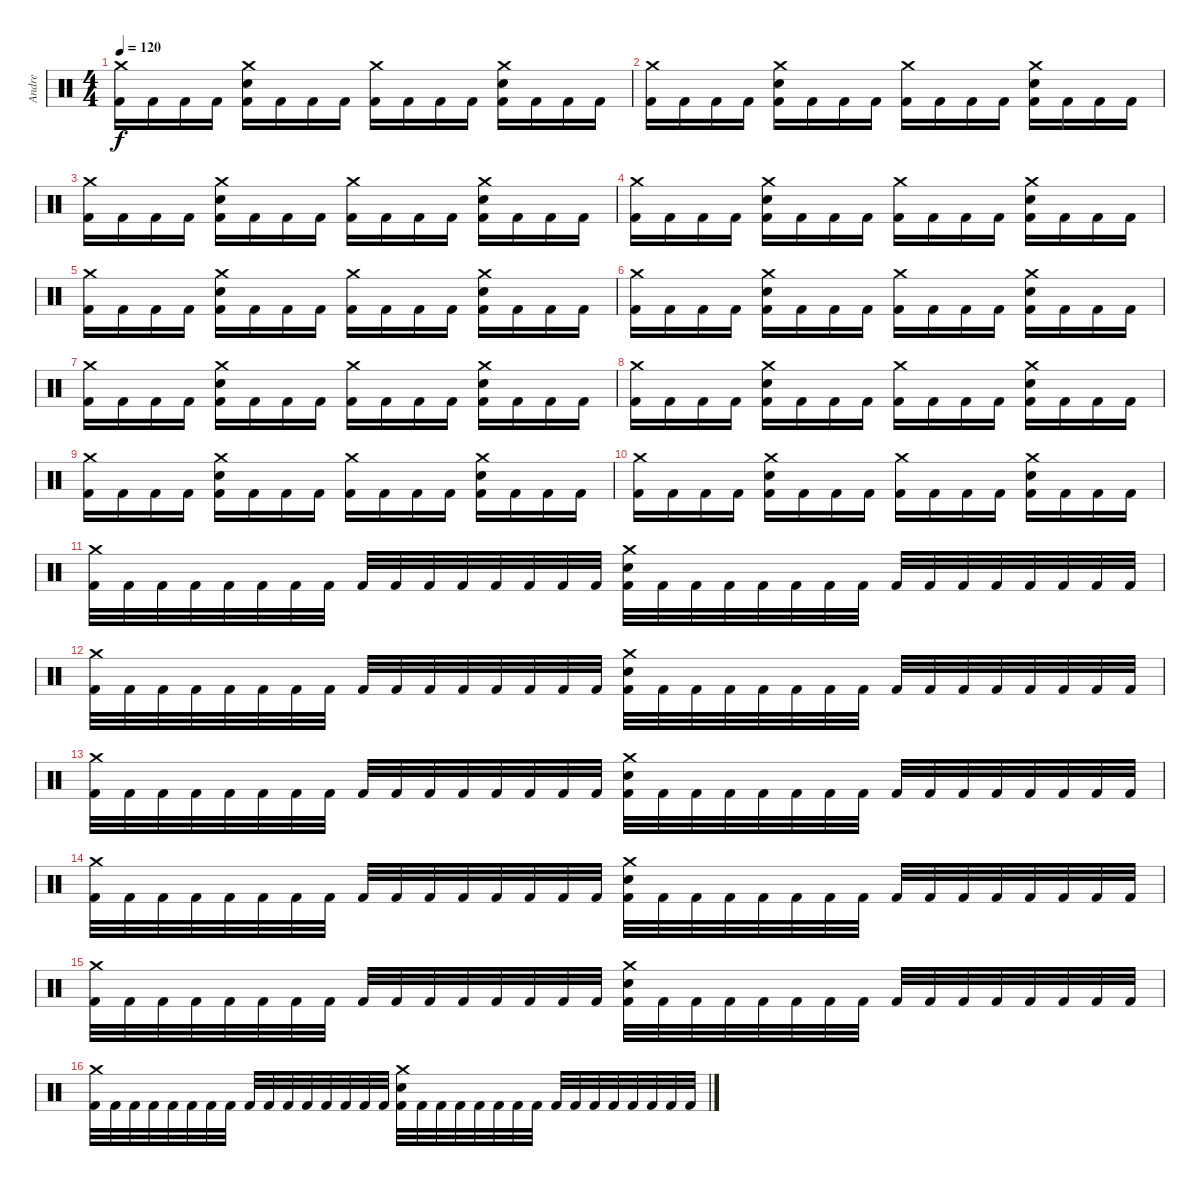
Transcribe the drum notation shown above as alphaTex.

\track ("Andre" "Andre") {instrument percussion}
\staff {score}
\articulation defaults
\ts (4 4)
\tempo 120
\clef neutral
\ks c
("Crash medium (hit)" "Kick (hit) 2").16{dy f} "Kick (hit) 2".16 "Kick (hit) 2".16 "Kick (hit) 2".16 ("Crash medium (hit)" "Snare (hit) 2" "Kick (hit) 2").16 "Kick (hit) 2".16 "Kick (hit) 2".16 "Kick (hit) 2".16 ("Crash medium (hit)" "Kick (hit) 2").16 "Kick (hit) 2".16 "Kick (hit) 2".16 "Kick (hit) 2".16 ("Crash medium (hit)" "Snare (hit) 2" "Kick (hit) 2").16 "Kick (hit) 2".16 "Kick (hit) 2".16 "Kick (hit) 2".16 |
("Crash medium (hit)" "Kick (hit) 2").16 "Kick (hit) 2".16 "Kick (hit) 2".16 "Kick (hit) 2".16 ("Crash medium (hit)" "Snare (hit) 2" "Kick (hit) 2").16 "Kick (hit) 2".16 "Kick (hit) 2".16 "Kick (hit) 2".16 ("Crash medium (hit)" "Kick (hit) 2").16 "Kick (hit) 2".16 "Kick (hit) 2".16 "Kick (hit) 2".16 ("Crash medium (hit)" "Snare (hit) 2" "Kick (hit) 2").16 "Kick (hit) 2".16 "Kick (hit) 2".16 "Kick (hit) 2".16 |
("Crash medium (hit)" "Kick (hit) 2").16 "Kick (hit) 2".16 "Kick (hit) 2".16 "Kick (hit) 2".16 ("Crash medium (hit)" "Snare (hit) 2" "Kick (hit) 2").16 "Kick (hit) 2".16 "Kick (hit) 2".16 "Kick (hit) 2".16 ("Crash medium (hit)" "Kick (hit) 2").16 "Kick (hit) 2".16 "Kick (hit) 2".16 "Kick (hit) 2".16 ("Crash medium (hit)" "Snare (hit) 2" "Kick (hit) 2").16 "Kick (hit) 2".16 "Kick (hit) 2".16 "Kick (hit) 2".16 |
("Crash medium (hit)" "Kick (hit) 2").16 "Kick (hit) 2".16 "Kick (hit) 2".16 "Kick (hit) 2".16 ("Crash medium (hit)" "Snare (hit) 2" "Kick (hit) 2").16 "Kick (hit) 2".16 "Kick (hit) 2".16 "Kick (hit) 2".16 ("Crash medium (hit)" "Kick (hit) 2").16 "Kick (hit) 2".16 "Kick (hit) 2".16 "Kick (hit) 2".16 ("Crash medium (hit)" "Snare (hit) 2" "Kick (hit) 2").16 "Kick (hit) 2".16 "Kick (hit) 2".16 "Kick (hit) 2".16 |
("Crash medium (hit)" "Kick (hit) 2").16 "Kick (hit) 2".16 "Kick (hit) 2".16 "Kick (hit) 2".16 ("Crash medium (hit)" "Snare (hit) 2" "Kick (hit) 2").16 "Kick (hit) 2".16 "Kick (hit) 2".16 "Kick (hit) 2".16 ("Crash medium (hit)" "Kick (hit) 2").16 "Kick (hit) 2".16 "Kick (hit) 2".16 "Kick (hit) 2".16 ("Crash medium (hit)" "Snare (hit) 2" "Kick (hit) 2").16 "Kick (hit) 2".16 "Kick (hit) 2".16 "Kick (hit) 2".16 |
("Crash medium (hit)" "Kick (hit) 2").16 "Kick (hit) 2".16 "Kick (hit) 2".16 "Kick (hit) 2".16 ("Crash medium (hit)" "Snare (hit) 2" "Kick (hit) 2").16 "Kick (hit) 2".16 "Kick (hit) 2".16 "Kick (hit) 2".16 ("Crash medium (hit)" "Kick (hit) 2").16 "Kick (hit) 2".16 "Kick (hit) 2".16 "Kick (hit) 2".16 ("Crash medium (hit)" "Snare (hit) 2" "Kick (hit) 2").16 "Kick (hit) 2".16 "Kick (hit) 2".16 "Kick (hit) 2".16 |
("Crash medium (hit)" "Kick (hit) 2").16 "Kick (hit) 2".16 "Kick (hit) 2".16 "Kick (hit) 2".16 ("Crash medium (hit)" "Snare (hit) 2" "Kick (hit) 2").16 "Kick (hit) 2".16 "Kick (hit) 2".16 "Kick (hit) 2".16 ("Crash medium (hit)" "Kick (hit) 2").16 "Kick (hit) 2".16 "Kick (hit) 2".16 "Kick (hit) 2".16 ("Crash medium (hit)" "Snare (hit) 2" "Kick (hit) 2").16 "Kick (hit) 2".16 "Kick (hit) 2".16 "Kick (hit) 2".16 |
("Crash medium (hit)" "Kick (hit) 2").16 "Kick (hit) 2".16 "Kick (hit) 2".16 "Kick (hit) 2".16 ("Crash medium (hit)" "Snare (hit) 2" "Kick (hit) 2").16 "Kick (hit) 2".16 "Kick (hit) 2".16 "Kick (hit) 2".16 ("Crash medium (hit)" "Kick (hit) 2").16 "Kick (hit) 2".16 "Kick (hit) 2".16 "Kick (hit) 2".16 ("Crash medium (hit)" "Snare (hit) 2" "Kick (hit) 2").16 "Kick (hit) 2".16 "Kick (hit) 2".16 "Kick (hit) 2".16 |
("Crash medium (hit)" "Kick (hit) 2").16 "Kick (hit) 2".16 "Kick (hit) 2".16 "Kick (hit) 2".16 ("Crash medium (hit)" "Snare (hit) 2" "Kick (hit) 2").16 "Kick (hit) 2".16 "Kick (hit) 2".16 "Kick (hit) 2".16 ("Crash medium (hit)" "Kick (hit) 2").16 "Kick (hit) 2".16 "Kick (hit) 2".16 "Kick (hit) 2".16 ("Crash medium (hit)" "Snare (hit) 2" "Kick (hit) 2").16 "Kick (hit) 2".16 "Kick (hit) 2".16 "Kick (hit) 2".16 |
("Crash medium (hit)" "Kick (hit) 2").16 "Kick (hit) 2".16 "Kick (hit) 2".16 "Kick (hit) 2".16 ("Crash medium (hit)" "Snare (hit) 2" "Kick (hit) 2").16 "Kick (hit) 2".16 "Kick (hit) 2".16 "Kick (hit) 2".16 ("Crash medium (hit)" "Kick (hit) 2").16 "Kick (hit) 2".16 "Kick (hit) 2".16 "Kick (hit) 2".16 ("Crash medium (hit)" "Snare (hit) 2" "Kick (hit) 2").16 "Kick (hit) 2".16 "Kick (hit) 2".16 "Kick (hit) 2".16 |
("Crash medium (hit)" "Kick (hit) 2").32 "Kick (hit) 2".32 "Kick (hit) 2".32 "Kick (hit) 2".32 "Kick (hit) 2".32 "Kick (hit) 2".32 "Kick (hit) 2".32 "Kick (hit) 2".32 "Kick (hit) 2".32 "Kick (hit) 2".32 "Kick (hit) 2".32 "Kick (hit) 2".32 "Kick (hit) 2".32 "Kick (hit) 2".32 "Kick (hit) 2".32 "Kick (hit) 2".32 ("Crash medium (hit)" "Snare (hit) 2" "Kick (hit) 2").32 "Kick (hit) 2".32 "Kick (hit) 2".32 "Kick (hit) 2".32 "Kick (hit) 2".32 "Kick (hit) 2".32 "Kick (hit) 2".32 "Kick (hit) 2".32 "Kick (hit) 2".32 "Kick (hit) 2".32 "Kick (hit) 2".32 "Kick (hit) 2".32 "Kick (hit) 2".32 "Kick (hit) 2".32 "Kick (hit) 2".32 "Kick (hit) 2".32 |
("Crash medium (hit)" "Kick (hit) 2").32 "Kick (hit) 2".32 "Kick (hit) 2".32 "Kick (hit) 2".32 "Kick (hit) 2".32 "Kick (hit) 2".32 "Kick (hit) 2".32 "Kick (hit) 2".32 "Kick (hit) 2".32 "Kick (hit) 2".32 "Kick (hit) 2".32 "Kick (hit) 2".32 "Kick (hit) 2".32 "Kick (hit) 2".32 "Kick (hit) 2".32 "Kick (hit) 2".32 ("Crash medium (hit)" "Snare (hit) 2" "Kick (hit) 2").32 "Kick (hit) 2".32 "Kick (hit) 2".32 "Kick (hit) 2".32 "Kick (hit) 2".32 "Kick (hit) 2".32 "Kick (hit) 2".32 "Kick (hit) 2".32 "Kick (hit) 2".32 "Kick (hit) 2".32 "Kick (hit) 2".32 "Kick (hit) 2".32 "Kick (hit) 2".32 "Kick (hit) 2".32 "Kick (hit) 2".32 "Kick (hit) 2".32 |
("Crash medium (hit)" "Kick (hit) 2").32 "Kick (hit) 2".32 "Kick (hit) 2".32 "Kick (hit) 2".32 "Kick (hit) 2".32 "Kick (hit) 2".32 "Kick (hit) 2".32 "Kick (hit) 2".32 "Kick (hit) 2".32 "Kick (hit) 2".32 "Kick (hit) 2".32 "Kick (hit) 2".32 "Kick (hit) 2".32 "Kick (hit) 2".32 "Kick (hit) 2".32 "Kick (hit) 2".32 ("Crash medium (hit)" "Snare (hit) 2" "Kick (hit) 2").32 "Kick (hit) 2".32 "Kick (hit) 2".32 "Kick (hit) 2".32 "Kick (hit) 2".32 "Kick (hit) 2".32 "Kick (hit) 2".32 "Kick (hit) 2".32 "Kick (hit) 2".32 "Kick (hit) 2".32 "Kick (hit) 2".32 "Kick (hit) 2".32 "Kick (hit) 2".32 "Kick (hit) 2".32 "Kick (hit) 2".32 "Kick (hit) 2".32 |
("Crash medium (hit)" "Kick (hit) 2").32 "Kick (hit) 2".32 "Kick (hit) 2".32 "Kick (hit) 2".32 "Kick (hit) 2".32 "Kick (hit) 2".32 "Kick (hit) 2".32 "Kick (hit) 2".32 "Kick (hit) 2".32 "Kick (hit) 2".32 "Kick (hit) 2".32 "Kick (hit) 2".32 "Kick (hit) 2".32 "Kick (hit) 2".32 "Kick (hit) 2".32 "Kick (hit) 2".32 ("Crash medium (hit)" "Snare (hit) 2" "Kick (hit) 2").32 "Kick (hit) 2".32 "Kick (hit) 2".32 "Kick (hit) 2".32 "Kick (hit) 2".32 "Kick (hit) 2".32 "Kick (hit) 2".32 "Kick (hit) 2".32 "Kick (hit) 2".32 "Kick (hit) 2".32 "Kick (hit) 2".32 "Kick (hit) 2".32 "Kick (hit) 2".32 "Kick (hit) 2".32 "Kick (hit) 2".32 "Kick (hit) 2".32 |
("Crash medium (hit)" "Kick (hit) 2").32 "Kick (hit) 2".32 "Kick (hit) 2".32 "Kick (hit) 2".32 "Kick (hit) 2".32 "Kick (hit) 2".32 "Kick (hit) 2".32 "Kick (hit) 2".32 "Kick (hit) 2".32 "Kick (hit) 2".32 "Kick (hit) 2".32 "Kick (hit) 2".32 "Kick (hit) 2".32 "Kick (hit) 2".32 "Kick (hit) 2".32 "Kick (hit) 2".32 ("Crash medium (hit)" "Snare (hit) 2" "Kick (hit) 2").32 "Kick (hit) 2".32 "Kick (hit) 2".32 "Kick (hit) 2".32 "Kick (hit) 2".32 "Kick (hit) 2".32 "Kick (hit) 2".32 "Kick (hit) 2".32 "Kick (hit) 2".32 "Kick (hit) 2".32 "Kick (hit) 2".32 "Kick (hit) 2".32 "Kick (hit) 2".32 "Kick (hit) 2".32 "Kick (hit) 2".32 "Kick (hit) 2".32 |
("Crash medium (hit)" "Kick (hit) 2").32 "Kick (hit) 2".32 "Kick (hit) 2".32 "Kick (hit) 2".32 "Kick (hit) 2".32 "Kick (hit) 2".32 "Kick (hit) 2".32 "Kick (hit) 2".32 "Kick (hit) 2".32 "Kick (hit) 2".32 "Kick (hit) 2".32 "Kick (hit) 2".32 "Kick (hit) 2".32 "Kick (hit) 2".32 "Kick (hit) 2".32 "Kick (hit) 2".32 ("Crash medium (hit)" "Snare (hit) 2" "Kick (hit) 2").32 "Kick (hit) 2".32 "Kick (hit) 2".32 "Kick (hit) 2".32 "Kick (hit) 2".32 "Kick (hit) 2".32 "Kick (hit) 2".32 "Kick (hit) 2".32 "Kick (hit) 2".32 "Kick (hit) 2".32 "Kick (hit) 2".32 "Kick (hit) 2".32 "Kick (hit) 2".32 "Kick (hit) 2".32 "Kick (hit) 2".32 "Kick (hit) 2".32
